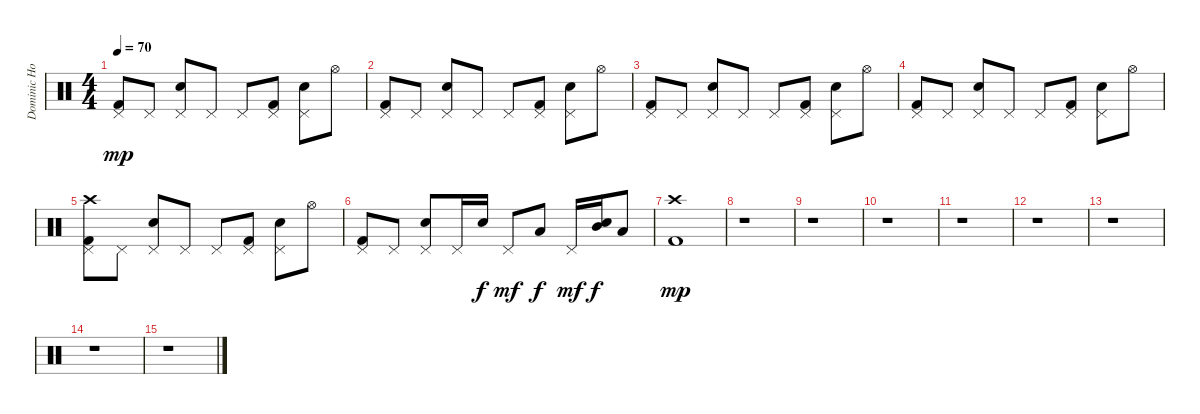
\track ("Dominic Howard" "Dominic Ho") {instrument percussion}
\staff {score}
\articulation defaults
\ts (4 4)
\tempo 70
\clef neutral
\ks c
("Pedal Hi-Hat (hit)" "Kick (hit) 2").8{dy mp} "Pedal Hi-Hat (hit)".8 ("Pedal Hi-Hat (hit)" "Electric Snare (hit)").8 "Pedal Hi-Hat (hit)".8 "Pedal Hi-Hat (hit)".8 ("Pedal Hi-Hat (hit)" "Kick (hit) 2").8 ("Pedal Hi-Hat (hit)" "Electric Snare (hit)").8 "Hi-Hat (open)".8 |
("Pedal Hi-Hat (hit)" "Kick (hit) 2").8 "Pedal Hi-Hat (hit)".8 ("Pedal Hi-Hat (hit)" "Electric Snare (hit)").8 "Pedal Hi-Hat (hit)".8 "Pedal Hi-Hat (hit)".8 ("Pedal Hi-Hat (hit)" "Kick (hit) 2").8 ("Pedal Hi-Hat (hit)" "Electric Snare (hit)").8 "Hi-Hat (open)".8 |
("Pedal Hi-Hat (hit)" "Kick (hit) 2").8 "Pedal Hi-Hat (hit)".8 ("Pedal Hi-Hat (hit)" "Electric Snare (hit)").8 "Pedal Hi-Hat (hit)".8 "Pedal Hi-Hat (hit)".8 ("Pedal Hi-Hat (hit)" "Kick (hit) 2").8 ("Pedal Hi-Hat (hit)" "Electric Snare (hit)").8 "Hi-Hat (open)".8 |
("Pedal Hi-Hat (hit)" "Kick (hit) 2").8 "Pedal Hi-Hat (hit)".8 ("Pedal Hi-Hat (hit)" "Electric Snare (hit)").8 "Pedal Hi-Hat (hit)".8 "Pedal Hi-Hat (hit)".8 ("Pedal Hi-Hat (hit)" "Kick (hit) 2").8 ("Pedal Hi-Hat (hit)" "Electric Snare (hit)").8 "Hi-Hat (open)".8 |
("Crash high (hit)" "Pedal Hi-Hat (hit)" "Kick (hit) 2").8 "Pedal Hi-Hat (hit)".8 ("Pedal Hi-Hat (hit)" "Electric Snare (hit)").8 "Pedal Hi-Hat (hit)".8 "Pedal Hi-Hat (hit)".8 ("Pedal Hi-Hat (hit)" "Kick (hit) 2").8 ("Pedal Hi-Hat (hit)" "Electric Snare (hit)").8 "Hi-Hat (open)".8 |
("Pedal Hi-Hat (hit)" "Kick (hit) 2").8 "Pedal Hi-Hat (hit)".8 ("Pedal Hi-Hat (hit)" "Electric Snare (hit)").8 "Pedal Hi-Hat (hit)".16 "Electric Snare (hit)".16{dy f} "Pedal Hi-Hat (hit)".8{dy mf} "Low Tom (hit)".8{dy f} "Pedal Hi-Hat (hit)".16{dy mf} ("Mid Tom (hit)" "Electric Snare (hit)").16{dy f} "Low Tom (hit)".8 |
("Crash high (hit)" "Kick (hit) 2").1{dy mp} |
r.1 |
r.1 |
r.1 |
r.1 |
r.1 |
r.1 |
r.1 |
r.1
